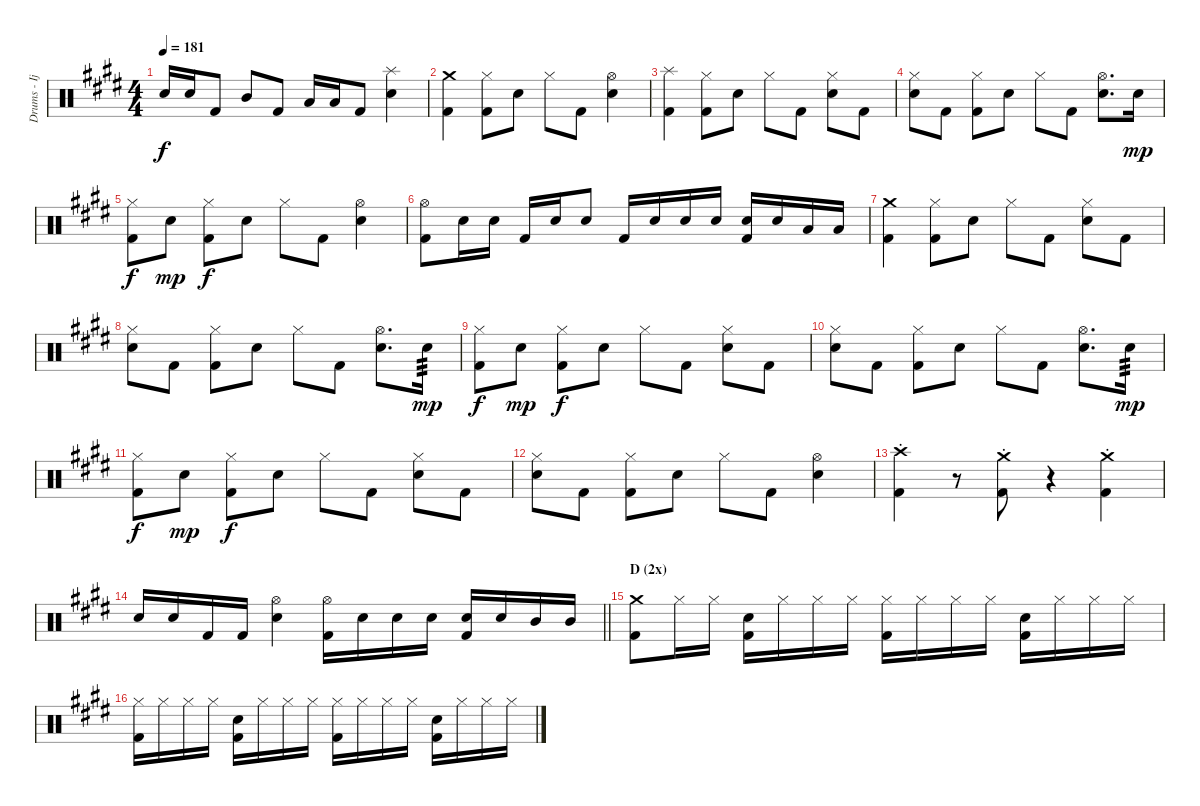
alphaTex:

\track ("Drums - Ijichi" "Drums - Ij") {instrument percussion}
\staff {score}
\articulation defaults
\ts (4 4)
\tempo 181
\clef neutral
\ks e "Electric Snare (hit)".16{dy f} "Electric Snare (hit)".16 "Kick (hit) 2".8 "Mid Tom (hit)".8 "Kick (hit) 2".8 "Low Tom (hit)".16 "Low Tom (hit)".16 "Kick (hit) 2".8
("Splash (hit)" "Electric Snare (hit)").4 |
("Crash medium (hit)" "Kick (hit) 2").4 ("Hi-Hat (closed)" "Kick (hit) 2").8 "Electric Snare (hit)".8 "Hi-Hat (closed)".8 "Kick (hit) 2".8 ("Hi-Hat (open)" "Electric Snare (hit)").4 |
("Splash (hit)" "Kick (hit) 2").4 ("Hi-Hat (closed)" "Kick (hit) 2").8 "Electric Snare (hit)".8 "Hi-Hat (closed)".8 "Kick (hit) 2".8 ("Hi-Hat (closed)" "Electric Snare (hit)").8 "Kick (hit) 2".8 |
("Hi-Hat (closed)" "Electric Snare (hit)").8 "Kick (hit) 2".8 ("Hi-Hat (closed)" "Kick (hit) 2").8 "Electric Snare (hit)".8 "Hi-Hat (closed)".8 "Kick (hit) 2".8 ("Hi-Hat (open)" "Electric Snare (hit)").8{d} "Electric Snare (hit)".16{dy mp} |
("Hi-Hat (closed)" "Kick (hit) 2").8{dy f} "Electric Snare (hit)".8{dy mp} ("Hi-Hat (closed)" "Kick (hit) 2").8{dy f} "Electric Snare (hit)".8 "Hi-Hat (closed)".8 "Kick (hit) 2".8 ("Hi-Hat (open)" "Electric Snare (hit)").4 |
("Hi-Hat (open)" "Kick (hit) 2").8 "Electric Snare (hit)".16 "Electric Snare (hit)".16 "Kick (hit) 2".16 "Electric Snare (hit)".16 "Electric Snare (hit)".8 "Kick (hit) 2".16 "Electric Snare (hit)".16 "Electric Snare (hit)".16 "Electric Snare (hit)".16 ("Electric Snare (hit)" "Kick (hit) 2").16 "Electric Snare (hit)".16 "Low Tom (hit)".16 "Low Tom (hit)".16 |
("Crash medium (hit)" "Kick (hit) 2").4 ("Hi-Hat (closed)" "Kick (hit) 2").8 "Electric Snare (hit)".8 "Hi-Hat (closed)".8 "Kick (hit) 2".8 ("Hi-Hat (closed)" "Electric Snare (hit)").8 "Kick (hit) 2".8 |
("Hi-Hat (closed)" "Electric Snare (hit)").8 "Kick (hit) 2".8 ("Hi-Hat (closed)" "Kick (hit) 2").8 "Electric Snare (hit)".8 "Hi-Hat (closed)".8 "Kick (hit) 2".8 ("Hi-Hat (open)" "Electric Snare (hit)").8{d} "Electric Snare (hit)".16{tp 3 dy mp} |
("Hi-Hat (closed)" "Kick (hit) 2").8{dy f} "Electric Snare (hit)".8{dy mp} ("Hi-Hat (closed)" "Kick (hit) 2").8{dy f} "Electric Snare (hit)".8 "Hi-Hat (closed)".8 "Kick (hit) 2".8 ("Hi-Hat (closed)" "Electric Snare (hit)").8 "Kick (hit) 2".8 |
("Hi-Hat (closed)" "Electric Snare (hit)").8 "Kick (hit) 2".8 ("Hi-Hat (closed)" "Kick (hit) 2").8 "Electric Snare (hit)".8 "Hi-Hat (closed)".8 "Kick (hit) 2".8 ("Hi-Hat (open)" "Electric Snare (hit)").8{d} "Electric Snare (hit)".16{tp 3 dy mp} |
("Hi-Hat (closed)" "Kick (hit) 2").8{dy f} "Electric Snare (hit)".8{dy mp} ("Hi-Hat (closed)" "Kick (hit) 2").8{dy f} "Electric Snare (hit)".8 "Hi-Hat (closed)".8 "Kick (hit) 2".8 ("Hi-Hat (closed)" "Electric Snare (hit)").8 "Kick (hit) 2".8 |
("Hi-Hat (closed)" "Electric Snare (hit)").8 "Kick (hit) 2".8 ("Hi-Hat (closed)" "Kick (hit) 2").8 "Electric Snare (hit)".8 "Hi-Hat (closed)".8 "Kick (hit) 2".8 ("Hi-Hat (open)" "Electric Snare (hit)").4 |
("Crash high (hit)"{st} "Kick (hit) 2").4 r.8 ("Crash medium (hit)"{st} "Kick (hit) 2").8 r.4 ("Crash medium (hit)"{st} "Kick (hit) 2").4 |
\barLineRight lightlight "Electric Snare (hit)".16 "Electric Snare (hit)".16 "Kick (hit) 2".16 "Kick (hit) 2".16
("Hi-Hat (open)" "Electric Snare (hit)").4 ("Hi-Hat (open)" "Kick (hit) 2").16 "Electric Snare (hit)".16 "Electric Snare (hit)".16 "Electric Snare (hit)".16 ("Electric Snare (hit)" "Kick (hit) 2").16 "Electric Snare (hit)".16 "Mid Tom (hit)".16 "Mid Tom (hit)".16 |
\section ("" "D (2x)")
("Crash medium (hit)" "Kick (hit) 2").8 "Hi-Hat (closed)".16 "Hi-Hat (closed)".16 ("Electric Snare (hit)" "Kick (hit) 2").16 "Hi-Hat (closed)".16 "Hi-Hat (closed)".16 "Hi-Hat (closed)".16 ("Hi-Hat (closed)" "Kick (hit) 2").16 "Hi-Hat (closed)".16 "Hi-Hat (closed)".16 "Hi-Hat (closed)".16 ("Electric Snare (hit)" "Kick (hit) 2").16 "Hi-Hat (closed)".16 "Hi-Hat (closed)".16 "Hi-Hat (closed)".16 |
("Hi-Hat (closed)" "Kick (hit) 2").16 "Hi-Hat (closed)".16 "Hi-Hat (closed)".16 "Hi-Hat (closed)".16 ("Electric Snare (hit)" "Kick (hit) 2").16 "Hi-Hat (closed)".16 "Hi-Hat (closed)".16 "Hi-Hat (closed)".16 ("Hi-Hat (closed)" "Kick (hit) 2").16 "Hi-Hat (closed)".16 "Hi-Hat (closed)".16 "Hi-Hat (closed)".16 ("Electric Snare (hit)" "Kick (hit) 2").16 "Hi-Hat (closed)".16 "Hi-Hat (closed)".16 "Hi-Hat (closed)".16
